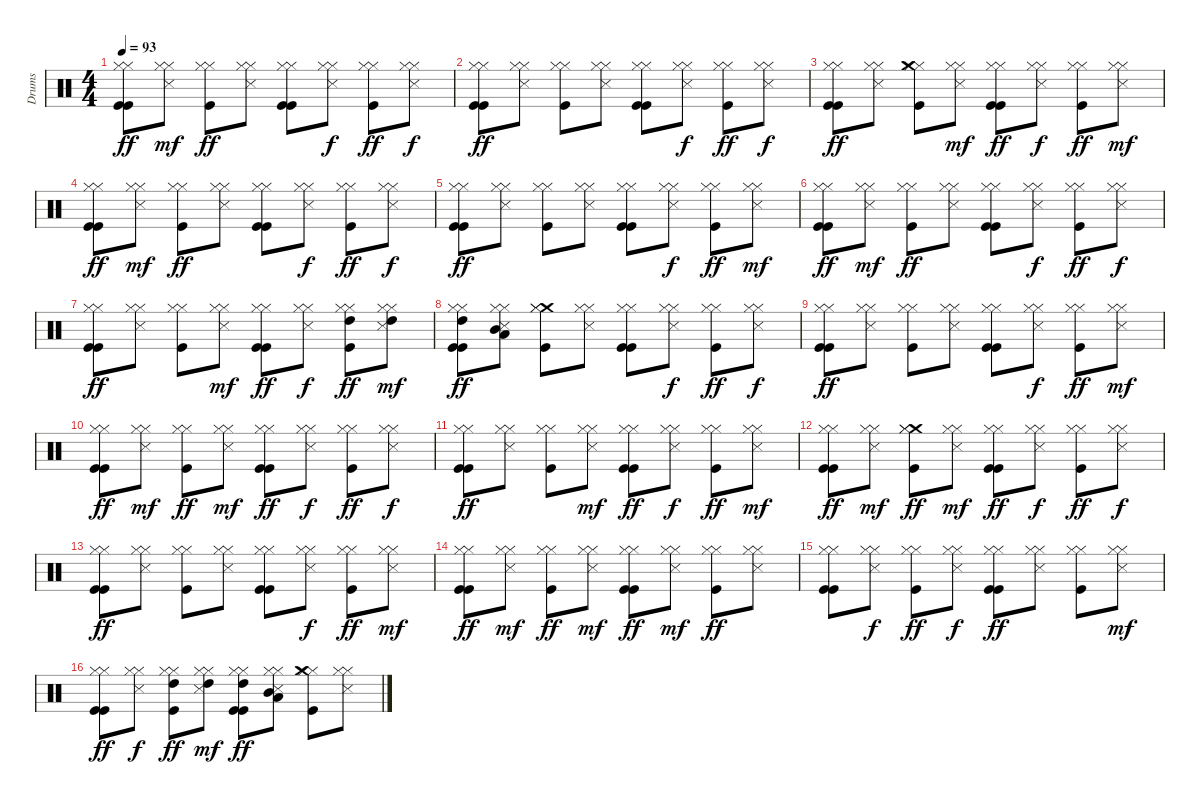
\track ("Drums" "Drums") {instrument percussion}
\staff {score}
\articulation defaults
\ts (4 4)
\tempo 93
\clef neutral
\ks c
("Kick (hit)" "Hi-Hat (closed)" "Kick (hit)" "Hi-Hat (closed)").8{dy ff} ("Hi-Hat (closed)" "Snare (side stick) 3" "Hi-Hat (closed)").8{dy mf} ("Hi-Hat (closed)" "Kick (hit)" "Hi-Hat (closed)").8{dy ff} ("Snare (side stick) 3" "Hi-Hat (closed)" "Hi-Hat (closed)").8 ("Kick (hit)" "Hi-Hat (closed)" "Kick (hit)" "Hi-Hat (closed)").8 ("Snare (side stick) 3" "Hi-Hat (closed)" "Hi-Hat (closed)").8{dy f} ("Hi-Hat (closed)" "Kick (hit)" "Hi-Hat (closed)").8{dy ff} ("Snare (side stick) 3" "Hi-Hat (closed)" "Hi-Hat (closed)").8{dy f} |
("Kick (hit)" "Hi-Hat (closed)" "Kick (hit)" "Hi-Hat (closed)").8{dy ff} ("Snare (side stick) 3" "Hi-Hat (closed)" "Hi-Hat (closed)").8 ("Hi-Hat (closed)" "Kick (hit)" "Hi-Hat (closed)").8 ("Snare (side stick) 3" "Hi-Hat (closed)" "Hi-Hat (closed)").8 ("Kick (hit)" "Hi-Hat (closed)" "Kick (hit)" "Hi-Hat (closed)").8 ("Snare (side stick) 3" "Hi-Hat (closed)" "Hi-Hat (closed)").8{dy f} ("Hi-Hat (closed)" "Kick (hit)" "Hi-Hat (closed)").8{dy ff} ("Hi-Hat (closed)" "Snare (side stick) 3" "Hi-Hat (closed)").8{dy f} |
("Kick (hit)" "Hi-Hat (closed)" "Kick (hit)" "Hi-Hat (closed)").8{dy ff} ("Snare (side stick) 3" "Hi-Hat (closed)" "Hi-Hat (closed)").8 ("Hi-Hat (closed)" "Crash medium (hit)" "Kick (hit)" "Hi-Hat (closed)").8 ("Hi-Hat (closed)" "Snare (side stick) 3" "Hi-Hat (closed)").8{dy mf} ("Kick (hit)" "Hi-Hat (closed)" "Kick (hit)" "Hi-Hat (closed)").8{dy ff} ("Snare (side stick) 3" "Hi-Hat (closed)" "Hi-Hat (closed)").8{dy f} ("Hi-Hat (closed)" "Kick (hit)" "Hi-Hat (closed)").8{dy ff} ("Snare (side stick) 3" "Hi-Hat (closed)" "Hi-Hat (closed)").8{dy mf} |
("Kick (hit)" "Hi-Hat (closed)" "Kick (hit)" "Hi-Hat (closed)").8{dy ff} ("Hi-Hat (closed)" "Snare (side stick) 3" "Hi-Hat (closed)").8{dy mf} ("Hi-Hat (closed)" "Kick (hit)" "Hi-Hat (closed)").8{dy ff} ("Snare (side stick) 3" "Hi-Hat (closed)" "Hi-Hat (closed)").8 ("Kick (hit)" "Hi-Hat (closed)" "Kick (hit)" "Hi-Hat (closed)").8 ("Snare (side stick) 3" "Hi-Hat (closed)" "Hi-Hat (closed)").8{dy f} ("Hi-Hat (closed)" "Kick (hit)" "Hi-Hat (closed)").8{dy ff} ("Snare (side stick) 3" "Hi-Hat (closed)" "Hi-Hat (closed)").8{dy f} |
("Kick (hit)" "Hi-Hat (closed)" "Kick (hit)" "Hi-Hat (closed)").8{dy ff} ("Hi-Hat (closed)" "Snare (side stick) 3" "Hi-Hat (closed)").8 ("Hi-Hat (closed)" "Kick (hit)" "Hi-Hat (closed)").8 ("Snare (side stick) 3" "Hi-Hat (closed)" "Hi-Hat (closed)").8 ("Kick (hit)" "Hi-Hat (closed)" "Kick (hit)" "Hi-Hat (closed)").8 ("Hi-Hat (closed)" "Snare (side stick) 3" "Hi-Hat (closed)").8{dy f} ("Hi-Hat (closed)" "Kick (hit)" "Hi-Hat (closed)").8{dy ff} ("Hi-Hat (closed)" "Snare (side stick) 3" "Hi-Hat (closed)").8{dy mf} |
("Kick (hit)" "Hi-Hat (closed)" "Kick (hit)" "Hi-Hat (closed)").8{dy ff} ("Snare (side stick) 3" "Hi-Hat (closed)" "Hi-Hat (closed)").8{dy mf} ("Hi-Hat (closed)" "Kick (hit)" "Hi-Hat (closed)").8{dy ff} ("Snare (side stick) 3" "Hi-Hat (closed)" "Hi-Hat (closed)").8 ("Kick (hit)" "Hi-Hat (closed)" "Kick (hit)" "Hi-Hat (closed)").8 ("Snare (side stick) 3" "Hi-Hat (closed)" "Hi-Hat (closed)").8{dy f} ("Hi-Hat (closed)" "Kick (hit)" "Hi-Hat (closed)").8{dy ff} ("Hi-Hat (closed)" "Snare (side stick) 3" "Hi-Hat (closed)").8{dy f} |
("Kick (hit)" "Hi-Hat (closed)" "Kick (hit)" "Hi-Hat (closed)").8{dy ff} ("Snare (side stick) 3" "Hi-Hat (closed)" "Hi-Hat (closed)").8 ("Hi-Hat (closed)" "Kick (hit)" "Hi-Hat (closed)").8 ("Hi-Hat (closed)" "Snare (side stick) 3" "Hi-Hat (closed)").8{dy mf} ("Kick (hit)" "Hi-Hat (closed)" "Kick (hit)" "Hi-Hat (closed)").8{dy ff} ("Hi-Hat (closed)" "Snare (side stick) 3" "Hi-Hat (closed)").8{dy f} ("Hi-Hat (closed)" "Kick (hit)" "High Tom (hit)" "Hi-Hat (closed)").8{dy ff} ("High Tom (hit)" "Snare (side stick) 3" "Hi-Hat (closed)" "Hi-Hat (closed)").8{dy mf} |
("Kick (hit)" "Hi-Hat (closed)" "Kick (hit)" "High Tom (hit)" "Hi-Hat (closed)").8{dy ff} ("Snare (side stick) 3" "Mid Tom (hit)" "Hi-Hat (closed)" "Hi-Hat (closed)" "Low Tom (hit)").8 ("Crash medium (hit)" "Hi-Hat (closed)" "Kick (hit)" "Hi-Hat (closed)").8 ("Snare (side stick) 3" "Hi-Hat (closed)" "Hi-Hat (closed)").8 ("Kick (hit)" "Hi-Hat (closed)" "Kick (hit)" "Hi-Hat (closed)").8 ("Snare (side stick) 3" "Hi-Hat (closed)" "Hi-Hat (closed)").8{dy f} ("Hi-Hat (closed)" "Kick (hit)" "Hi-Hat (closed)").8{dy ff} ("Snare (side stick) 3" "Hi-Hat (closed)" "Hi-Hat (closed)").8{dy f} |
("Kick (hit)" "Hi-Hat (closed)" "Kick (hit)" "Hi-Hat (closed)").8{dy ff} ("Hi-Hat (closed)" "Snare (side stick) 3" "Hi-Hat (closed)").8 ("Hi-Hat (closed)" "Kick (hit)" "Hi-Hat (closed)").8 ("Snare (side stick) 3" "Hi-Hat (closed)" "Hi-Hat (closed)").8 ("Kick (hit)" "Hi-Hat (closed)" "Kick (hit)" "Hi-Hat (closed)").8 ("Hi-Hat (closed)" "Snare (side stick) 3" "Hi-Hat (closed)").8{dy f} ("Hi-Hat (closed)" "Kick (hit)" "Hi-Hat (closed)").8{dy ff} ("Snare (side stick) 3" "Hi-Hat (closed)" "Hi-Hat (closed)").8{dy mf} |
("Kick (hit)" "Hi-Hat (closed)" "Kick (hit)" "Hi-Hat (closed)").8{dy ff} ("Hi-Hat (closed)" "Snare (side stick) 3" "Hi-Hat (closed)").8{dy mf} ("Hi-Hat (closed)" "Kick (hit)" "Hi-Hat (closed)").8{dy ff} ("Hi-Hat (closed)" "Snare (side stick) 3" "Hi-Hat (closed)").8{dy mf} ("Kick (hit)" "Hi-Hat (closed)" "Kick (hit)" "Hi-Hat (closed)").8{dy ff} ("Hi-Hat (closed)" "Snare (side stick) 3" "Hi-Hat (closed)").8{dy f} ("Hi-Hat (closed)" "Kick (hit)" "Hi-Hat (closed)").8{dy ff} ("Hi-Hat (closed)" "Snare (side stick) 3" "Hi-Hat (closed)").8{dy f} |
("Kick (hit)" "Hi-Hat (closed)" "Kick (hit)" "Hi-Hat (closed)").8{dy ff} ("Hi-Hat (closed)" "Snare (side stick) 3" "Hi-Hat (closed)").8 ("Hi-Hat (closed)" "Kick (hit)" "Hi-Hat (closed)").8 ("Hi-Hat (closed)" "Snare (side stick) 3" "Hi-Hat (closed)").8{dy mf} ("Kick (hit)" "Hi-Hat (closed)" "Kick (hit)" "Hi-Hat (closed)").8{dy ff} ("Hi-Hat (closed)" "Snare (side stick) 3" "Hi-Hat (closed)").8{dy f} ("Hi-Hat (closed)" "Kick (hit)" "Hi-Hat (closed)").8{dy ff} ("Snare (side stick) 3" "Hi-Hat (closed)" "Hi-Hat (closed)").8{dy mf} |
("Kick (hit)" "Hi-Hat (closed)" "Kick (hit)" "Hi-Hat (closed)").8{dy ff} ("Snare (side stick) 3" "Hi-Hat (closed)" "Hi-Hat (closed)").8{dy mf} ("Crash medium (hit)" "Hi-Hat (closed)" "Kick (hit)" "Hi-Hat (closed)").8{dy ff} ("Hi-Hat (closed)" "Snare (side stick) 3" "Hi-Hat (closed)").8{dy mf} ("Kick (hit)" "Hi-Hat (closed)" "Kick (hit)" "Hi-Hat (closed)").8{dy ff} ("Snare (side stick) 3" "Hi-Hat (closed)" "Hi-Hat (closed)").8{dy f} ("Hi-Hat (closed)" "Kick (hit)" "Hi-Hat (closed)").8{dy ff} ("Snare (side stick) 3" "Hi-Hat (closed)" "Hi-Hat (closed)").8{dy f} |
("Kick (hit)" "Hi-Hat (closed)" "Kick (hit)" "Hi-Hat (closed)").8{dy ff} ("Hi-Hat (closed)" "Snare (side stick) 3" "Hi-Hat (closed)").8 ("Hi-Hat (closed)" "Kick (hit)" "Hi-Hat (closed)").8 ("Snare (side stick) 3" "Hi-Hat (closed)" "Hi-Hat (closed)").8 ("Kick (hit)" "Hi-Hat (closed)" "Kick (hit)" "Hi-Hat (closed)").8 ("Hi-Hat (closed)" "Snare (side stick) 3" "Hi-Hat (closed)").8{dy f} ("Hi-Hat (closed)" "Kick (hit)" "Hi-Hat (closed)").8{dy ff} ("Hi-Hat (closed)" "Snare (side stick) 3" "Hi-Hat (closed)").8{dy mf} |
("Kick (hit)" "Hi-Hat (closed)" "Kick (hit)" "Hi-Hat (closed)").8{dy ff} ("Hi-Hat (closed)" "Snare (side stick) 3" "Hi-Hat (closed)").8{dy mf} ("Hi-Hat (closed)" "Kick (hit)" "Hi-Hat (closed)").8{dy ff} ("Hi-Hat (closed)" "Snare (side stick) 3" "Hi-Hat (closed)").8{dy mf} ("Kick (hit)" "Hi-Hat (closed)" "Kick (hit)" "Hi-Hat (closed)").8{dy ff} ("Hi-Hat (closed)" "Snare (side stick) 3" "Hi-Hat (closed)").8{dy mf} ("Hi-Hat (closed)" "Kick (hit)" "Hi-Hat (closed)").8{dy ff} ("Snare (side stick) 3" "Hi-Hat (closed)" "Hi-Hat (closed)").8 |
("Kick (hit)" "Hi-Hat (closed)" "Kick (hit)" "Hi-Hat (closed)").8 ("Snare (side stick) 3" "Hi-Hat (closed)" "Hi-Hat (closed)").8{dy f} ("Hi-Hat (closed)" "Kick (hit)" "Hi-Hat (closed)").8{dy ff} ("Snare (side stick) 3" "Hi-Hat (closed)" "Hi-Hat (closed)").8{dy f} ("Kick (hit)" "Hi-Hat (closed)" "Kick (hit)" "Hi-Hat (closed)").8{dy ff} ("Snare (side stick) 3" "Hi-Hat (closed)" "Hi-Hat (closed)").8 ("Hi-Hat (closed)" "Kick (hit)" "Hi-Hat (closed)").8 ("Hi-Hat (closed)" "Snare (side stick) 3" "Hi-Hat (closed)").8{dy mf} |
("Kick (hit)" "Hi-Hat (closed)" "Kick (hit)" "Hi-Hat (closed)").8{dy ff} ("Hi-Hat (closed)" "Snare (side stick) 3" "Hi-Hat (closed)").8{dy f} ("Hi-Hat (closed)" "Kick (hit)" "High Tom (hit)" "Hi-Hat (closed)").8{dy ff} ("Hi-Hat (closed)" "Snare (side stick) 3" "High Tom (hit)" "Hi-Hat (closed)").8{dy mf} ("Kick (hit)" "Hi-Hat (closed)" "Kick (hit)" "High Tom (hit)" "Hi-Hat (closed)").8{dy ff} ("Snare (side stick) 3" "Hi-Hat (closed)" "Mid Tom (hit)" "Hi-Hat (closed)" "Low Tom (hit)").8 ("Hi-Hat (closed)" "Crash medium (hit)" "Kick (hit)" "Hi-Hat (closed)").8 ("Snare (side stick) 3" "Hi-Hat (closed)" "Hi-Hat (closed)").8
